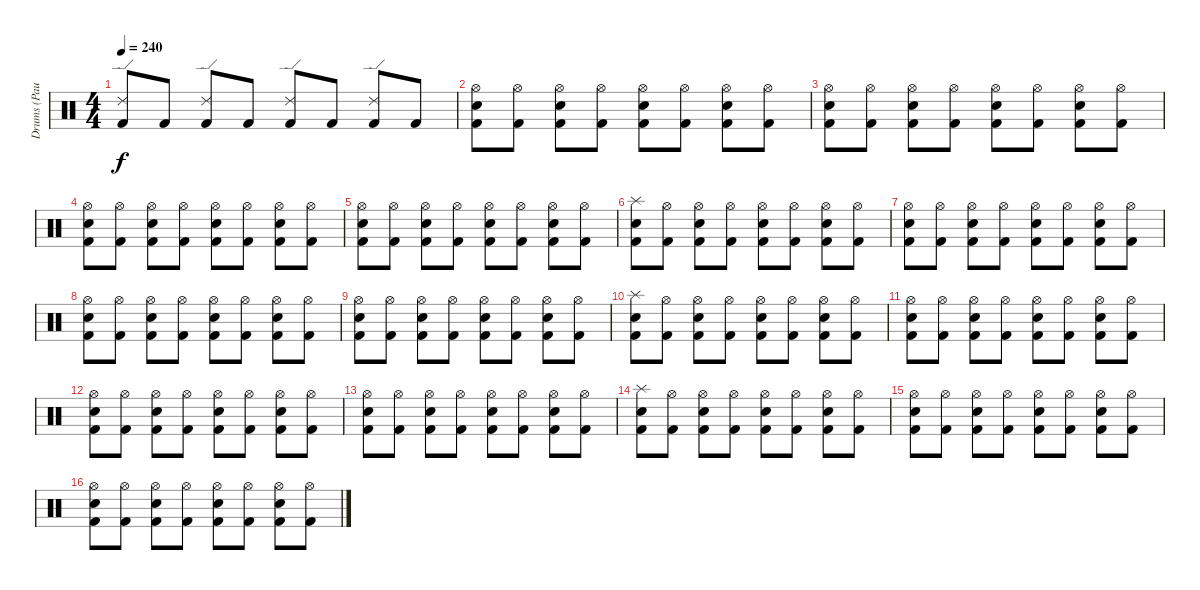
\track ("Drums (Paul)" "Drums (Pau") {instrument percussion}
\staff {score}
\articulation defaults
\ts (4 4)
\tempo 240
\clef neutral
\ks c
("Ride (edge) 2" "Kick (hit) 2").8{dy f} "Kick (hit) 2".8 ("Ride (edge) 2" "Kick (hit) 2").8 "Kick (hit) 2".8 ("Ride (edge) 2" "Kick (hit) 2").8 "Kick (hit) 2".8 ("Ride (edge) 2" "Kick (hit) 2").8 "Kick (hit) 2".8 |
("Hi-Hat (open)" "Snare (hit) 2" "Kick (hit) 2").8 ("Hi-Hat (open)" "Kick (hit) 2").8 ("Hi-Hat (open)" "Snare (hit) 2" "Kick (hit) 2").8 ("Hi-Hat (open)" "Kick (hit) 2").8 ("Hi-Hat (open)" "Snare (hit) 2" "Kick (hit) 2").8 ("Hi-Hat (open)" "Kick (hit) 2").8 ("Hi-Hat (open)" "Snare (hit) 2" "Kick (hit) 2").8 ("Hi-Hat (open)" "Kick (hit) 2").8 |
("Hi-Hat (open)" "Snare (hit) 2" "Kick (hit) 2").8 ("Hi-Hat (open)" "Kick (hit) 2").8 ("Hi-Hat (open)" "Snare (hit) 2" "Kick (hit) 2").8 ("Hi-Hat (open)" "Kick (hit) 2").8 ("Hi-Hat (open)" "Snare (hit) 2" "Kick (hit) 2").8 ("Hi-Hat (open)" "Kick (hit) 2").8 ("Hi-Hat (open)" "Snare (hit) 2" "Kick (hit) 2").8 ("Hi-Hat (open)" "Kick (hit) 2").8 |
("Hi-Hat (open)" "Snare (hit) 2" "Kick (hit) 2").8 ("Hi-Hat (open)" "Kick (hit) 2").8 ("Hi-Hat (open)" "Snare (hit) 2" "Kick (hit) 2").8 ("Hi-Hat (open)" "Kick (hit) 2").8 ("Hi-Hat (open)" "Snare (hit) 2" "Kick (hit) 2").8 ("Hi-Hat (open)" "Kick (hit) 2").8 ("Hi-Hat (open)" "Snare (hit) 2" "Kick (hit) 2").8 ("Hi-Hat (open)" "Kick (hit) 2").8 |
("Hi-Hat (open)" "Snare (hit) 2" "Kick (hit) 2").8 ("Hi-Hat (open)" "Kick (hit) 2").8 ("Hi-Hat (open)" "Snare (hit) 2" "Kick (hit) 2").8 ("Hi-Hat (open)" "Kick (hit) 2").8 ("Hi-Hat (open)" "Snare (hit) 2" "Kick (hit) 2").8 ("Hi-Hat (open)" "Kick (hit) 2").8 ("Hi-Hat (open)" "Snare (hit) 2" "Kick (hit) 2").8 ("Hi-Hat (open)" "Kick (hit) 2").8 |
("Splash (hit)" "Snare (hit) 2" "Kick (hit) 2").8 ("Hi-Hat (open)" "Kick (hit) 2").8 ("Hi-Hat (open)" "Snare (hit) 2" "Kick (hit) 2").8 ("Hi-Hat (open)" "Kick (hit) 2").8 ("Hi-Hat (open)" "Snare (hit) 2" "Kick (hit) 2").8 ("Hi-Hat (open)" "Kick (hit) 2").8 ("Hi-Hat (open)" "Snare (hit) 2" "Kick (hit) 2").8 ("Hi-Hat (open)" "Kick (hit) 2").8 |
("Hi-Hat (open)" "Snare (hit) 2" "Kick (hit) 2").8 ("Hi-Hat (open)" "Kick (hit) 2").8 ("Hi-Hat (open)" "Snare (hit) 2" "Kick (hit) 2").8 ("Hi-Hat (open)" "Kick (hit) 2").8 ("Hi-Hat (open)" "Snare (hit) 2" "Kick (hit) 2").8 ("Hi-Hat (open)" "Kick (hit) 2").8 ("Hi-Hat (open)" "Snare (hit) 2" "Kick (hit) 2").8 ("Hi-Hat (open)" "Kick (hit) 2").8 |
("Hi-Hat (open)" "Snare (hit) 2" "Kick (hit) 2").8 ("Hi-Hat (open)" "Kick (hit) 2").8 ("Hi-Hat (open)" "Snare (hit) 2" "Kick (hit) 2").8 ("Hi-Hat (open)" "Kick (hit) 2").8 ("Hi-Hat (open)" "Snare (hit) 2" "Kick (hit) 2").8 ("Hi-Hat (open)" "Kick (hit) 2").8 ("Hi-Hat (open)" "Snare (hit) 2" "Kick (hit) 2").8 ("Hi-Hat (open)" "Kick (hit) 2").8 |
("Hi-Hat (open)" "Snare (hit) 2" "Kick (hit) 2").8 ("Hi-Hat (open)" "Kick (hit) 2").8 ("Hi-Hat (open)" "Snare (hit) 2" "Kick (hit) 2").8 ("Hi-Hat (open)" "Kick (hit) 2").8 ("Hi-Hat (open)" "Snare (hit) 2" "Kick (hit) 2").8 ("Hi-Hat (open)" "Kick (hit) 2").8 ("Hi-Hat (open)" "Snare (hit) 2" "Kick (hit) 2").8 ("Hi-Hat (open)" "Kick (hit) 2").8 |
("Splash (hit)" "Snare (hit) 2" "Kick (hit) 2").8 ("Hi-Hat (open)" "Kick (hit) 2").8 ("Hi-Hat (open)" "Snare (hit) 2" "Kick (hit) 2").8 ("Hi-Hat (open)" "Kick (hit) 2").8 ("Hi-Hat (open)" "Snare (hit) 2" "Kick (hit) 2").8 ("Hi-Hat (open)" "Kick (hit) 2").8 ("Hi-Hat (open)" "Snare (hit) 2" "Kick (hit) 2").8 ("Hi-Hat (open)" "Kick (hit) 2").8 |
("Hi-Hat (open)" "Snare (hit) 2" "Kick (hit) 2").8 ("Hi-Hat (open)" "Kick (hit) 2").8 ("Hi-Hat (open)" "Snare (hit) 2" "Kick (hit) 2").8 ("Hi-Hat (open)" "Kick (hit) 2").8 ("Hi-Hat (open)" "Snare (hit) 2" "Kick (hit) 2").8 ("Hi-Hat (open)" "Kick (hit) 2").8 ("Hi-Hat (open)" "Snare (hit) 2" "Kick (hit) 2").8 ("Hi-Hat (open)" "Kick (hit) 2").8 |
("Hi-Hat (open)" "Snare (hit) 2" "Kick (hit) 2").8 ("Hi-Hat (open)" "Kick (hit) 2").8 ("Hi-Hat (open)" "Snare (hit) 2" "Kick (hit) 2").8 ("Hi-Hat (open)" "Kick (hit) 2").8 ("Hi-Hat (open)" "Snare (hit) 2" "Kick (hit) 2").8 ("Hi-Hat (open)" "Kick (hit) 2").8 ("Hi-Hat (open)" "Snare (hit) 2" "Kick (hit) 2").8 ("Hi-Hat (open)" "Kick (hit) 2").8 |
("Hi-Hat (open)" "Snare (hit) 2" "Kick (hit) 2").8 ("Hi-Hat (open)" "Kick (hit) 2").8 ("Hi-Hat (open)" "Snare (hit) 2" "Kick (hit) 2").8 ("Hi-Hat (open)" "Kick (hit) 2").8 ("Hi-Hat (open)" "Snare (hit) 2" "Kick (hit) 2").8 ("Hi-Hat (open)" "Kick (hit) 2").8 ("Hi-Hat (open)" "Snare (hit) 2" "Kick (hit) 2").8 ("Hi-Hat (open)" "Kick (hit) 2").8 |
("Splash (hit)" "Snare (hit) 2" "Kick (hit) 2").8 ("Hi-Hat (open)" "Kick (hit) 2").8 ("Hi-Hat (open)" "Snare (hit) 2" "Kick (hit) 2").8 ("Hi-Hat (open)" "Kick (hit) 2").8 ("Hi-Hat (open)" "Snare (hit) 2" "Kick (hit) 2").8 ("Hi-Hat (open)" "Kick (hit) 2").8 ("Hi-Hat (open)" "Snare (hit) 2" "Kick (hit) 2").8 ("Hi-Hat (open)" "Kick (hit) 2").8 |
("Hi-Hat (open)" "Snare (hit) 2" "Kick (hit) 2").8 ("Hi-Hat (open)" "Kick (hit) 2").8 ("Hi-Hat (open)" "Snare (hit) 2" "Kick (hit) 2").8 ("Hi-Hat (open)" "Kick (hit) 2").8 ("Hi-Hat (open)" "Snare (hit) 2" "Kick (hit) 2").8 ("Hi-Hat (open)" "Kick (hit) 2").8 ("Hi-Hat (open)" "Snare (hit) 2" "Kick (hit) 2").8 ("Hi-Hat (open)" "Kick (hit) 2").8 |
("Hi-Hat (open)" "Snare (hit) 2" "Kick (hit) 2").8 ("Hi-Hat (open)" "Kick (hit) 2").8 ("Hi-Hat (open)" "Snare (hit) 2" "Kick (hit) 2").8 ("Hi-Hat (open)" "Kick (hit) 2").8 ("Hi-Hat (open)" "Snare (hit) 2" "Kick (hit) 2").8 ("Hi-Hat (open)" "Kick (hit) 2").8 ("Hi-Hat (open)" "Snare (hit) 2" "Kick (hit) 2").8 ("Hi-Hat (open)" "Kick (hit) 2").8
